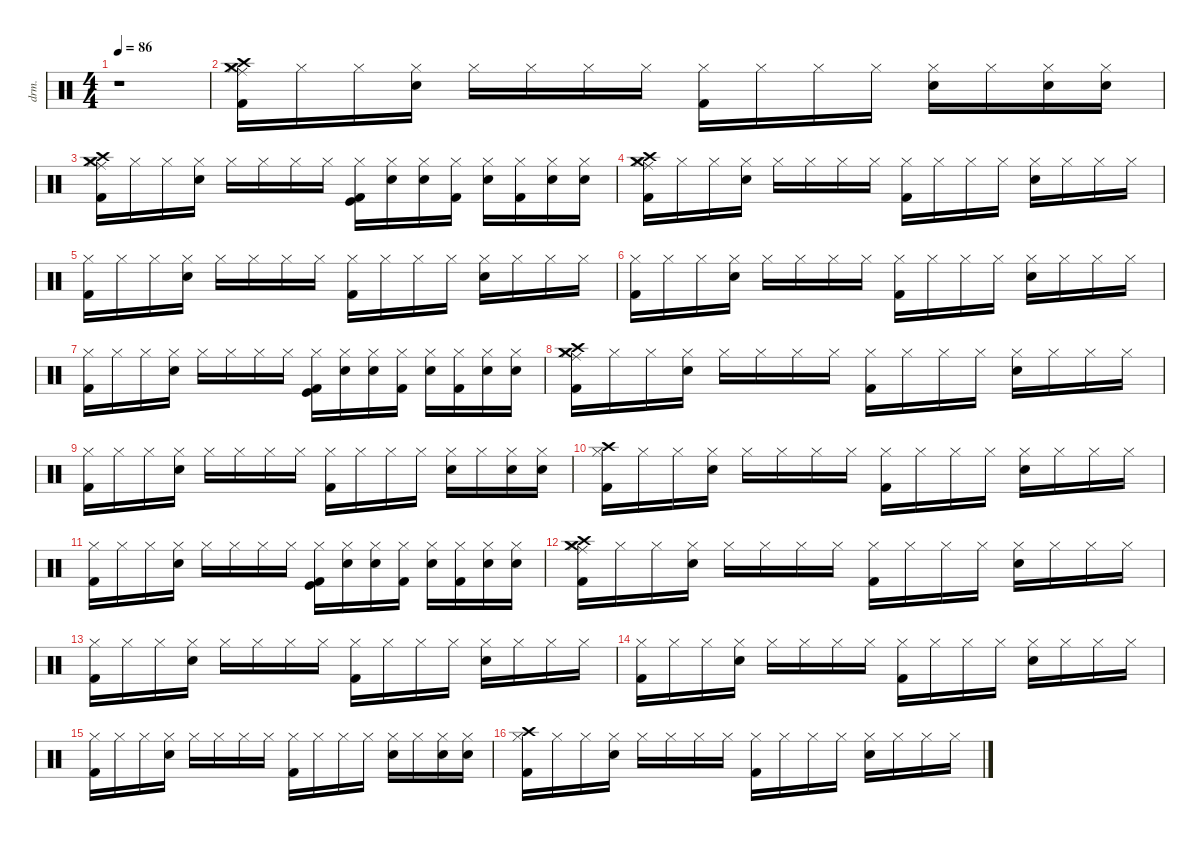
\defaultSystemsLayout 4
\hideDynamics
\bracketExtendMode nobrackets
\otherSystemsTrackNameOrientation horizontal
\track ("Drums" "drm.") {instrument percussion}
\staff {score}
\articulation defaults
\ts (4 4)
\tempo 86
\clef neutral
\ks c
r.1{dy mf beam Down} |
("Hi-Hat (closed)" "Crash high (hit)" "Crash medium (hit)" "Ride (middle)" "Kick (hit) 2").16{beam Down} "Hi-Hat (closed)".16{beam Down} "Hi-Hat (closed)".16{beam Down} ("Hi-Hat (closed)" "Snare (hit) 2").16{beam Down} "Hi-Hat (closed)".16{beam Down} "Hi-Hat (closed)".16{beam Down} "Hi-Hat (closed)".16{beam Down} "Hi-Hat (closed)".16{beam Down} ("Hi-Hat (closed)" "Kick (hit) 2").16{beam Down} "Hi-Hat (closed)".16{beam Down} "Hi-Hat (closed)".16{beam Down} "Hi-Hat (closed)".16{beam Down} ("Hi-Hat (closed)" "Snare (hit) 2").16{beam Down} "Hi-Hat (closed)".16{beam Down} ("Hi-Hat (closed)" "Snare (hit) 2").16{beam Down} ("Hi-Hat (closed)" "Snare (hit) 2").16{beam Down} |
("Hi-Hat (closed)" "Crash high (hit)" "Crash medium (hit)" "Ride (middle)" "Kick (hit) 2").16{beam Down} "Hi-Hat (closed)".16{beam Down} "Hi-Hat (closed)".16{beam Down} ("Hi-Hat (closed)" "Snare (hit) 2").16{beam Down} "Hi-Hat (closed)".16{beam Down} "Hi-Hat (closed)".16{beam Down} "Hi-Hat (closed)".16{beam Down} "Hi-Hat (closed)".16{beam Down} ("Hi-Hat (closed)" "Kick (hit)" "Kick (hit) 2").16{beam Down} ("Hi-Hat (closed)" "Snare (hit) 2").16{beam Down} ("Hi-Hat (closed)" "Snare (hit) 2").16{beam Down} ("Hi-Hat (closed)" "Kick (hit) 2").16{beam Down} ("Hi-Hat (closed)" "Snare (hit) 2").16{beam Down} ("Hi-Hat (closed)" "Kick (hit) 2").16{beam Down} ("Hi-Hat (closed)" "Snare (hit) 2").16{beam Down} ("Hi-Hat (closed)" "Snare (hit) 2").16{beam Down} |
("Hi-Hat (closed)" "Crash high (hit)" "Crash medium (hit)" "Ride (middle)" "Kick (hit) 2").16{beam Down} "Hi-Hat (closed)".16{beam Down} "Hi-Hat (closed)".16{beam Down} ("Hi-Hat (closed)" "Snare (hit) 2").16{beam Down} "Hi-Hat (closed)".16{beam Down} "Hi-Hat (closed)".16{beam Down} "Hi-Hat (closed)".16{beam Down} "Hi-Hat (closed)".16{beam Down} ("Hi-Hat (closed)" "Kick (hit) 2").16{beam Down} "Hi-Hat (closed)".16{beam Down} "Hi-Hat (closed)".16{beam Down} "Hi-Hat (closed)".16{beam Down} ("Hi-Hat (closed)" "Snare (hit) 2").16{beam Down} "Hi-Hat (closed)".16{beam Down} "Hi-Hat (closed)".16{beam Down} "Hi-Hat (closed)".16{beam Down} |
("Hi-Hat (closed)" "Kick (hit) 2").16{beam Down} "Hi-Hat (closed)".16{beam Down} "Hi-Hat (closed)".16{beam Down} ("Hi-Hat (closed)" "Snare (hit) 2").16{beam Down} "Hi-Hat (closed)".16{beam Down} "Hi-Hat (closed)".16{beam Down} "Hi-Hat (closed)".16{beam Down} "Hi-Hat (closed)".16{beam Down} ("Hi-Hat (closed)" "Kick (hit) 2").16{beam Down} "Hi-Hat (closed)".16{beam Down} "Hi-Hat (closed)".16{beam Down} "Hi-Hat (closed)".16{beam Down} ("Hi-Hat (closed)" "Snare (hit) 2").16{beam Down} "Hi-Hat (closed)".16{beam Down} "Hi-Hat (closed)".16{beam Down} "Hi-Hat (closed)".16{beam Down} |
("Hi-Hat (closed)" "Kick (hit) 2").16{beam Down} "Hi-Hat (closed)".16{beam Down} "Hi-Hat (closed)".16{beam Down} ("Hi-Hat (closed)" "Snare (hit) 2").16{beam Down} "Hi-Hat (closed)".16{beam Down} "Hi-Hat (closed)".16{beam Down} "Hi-Hat (closed)".16{beam Down} "Hi-Hat (closed)".16{beam Down} ("Hi-Hat (closed)" "Kick (hit) 2").16{beam Down} "Hi-Hat (closed)".16{beam Down} "Hi-Hat (closed)".16{beam Down} "Hi-Hat (closed)".16{beam Down} ("Hi-Hat (closed)" "Snare (hit) 2").16{beam Down} "Hi-Hat (closed)".16{beam Down} "Hi-Hat (closed)".16{beam Down} "Hi-Hat (closed)".16{beam Down} |
("Hi-Hat (closed)" "Kick (hit) 2").16{beam Down} "Hi-Hat (closed)".16{beam Down} "Hi-Hat (closed)".16{beam Down} ("Hi-Hat (closed)" "Snare (hit) 2").16{beam Down} "Hi-Hat (closed)".16{beam Down} "Hi-Hat (closed)".16{beam Down} "Hi-Hat (closed)".16{beam Down} "Hi-Hat (closed)".16{beam Down} ("Hi-Hat (closed)" "Kick (hit)" "Kick (hit) 2").16{beam Down} ("Hi-Hat (closed)" "Snare (hit) 2").16{beam Down} ("Hi-Hat (closed)" "Snare (hit) 2").16{beam Down} ("Hi-Hat (closed)" "Kick (hit) 2").16{beam Down} ("Hi-Hat (closed)" "Snare (hit) 2").16{beam Down} ("Hi-Hat (closed)" "Kick (hit) 2").16{beam Down} ("Hi-Hat (closed)" "Snare (hit) 2").16{beam Down} ("Hi-Hat (closed)" "Snare (hit) 2").16{beam Down} |
("Hi-Hat (closed)" "Crash high (hit)" "Ride (middle)" "Crash medium (hit)" "Kick (hit) 2").16{beam Down} "Hi-Hat (closed)".16{beam Down} "Hi-Hat (closed)".16{beam Down} ("Hi-Hat (closed)" "Snare (hit) 2").16{beam Down} "Hi-Hat (closed)".16{beam Down} "Hi-Hat (closed)".16{beam Down} "Hi-Hat (closed)".16{beam Down} "Hi-Hat (closed)".16{beam Down} ("Hi-Hat (closed)" "Kick (hit) 2").16{beam Down} "Hi-Hat (closed)".16{beam Down} "Hi-Hat (closed)".16{beam Down} "Hi-Hat (closed)".16{beam Down} ("Hi-Hat (closed)" "Snare (hit) 2").16{beam Down} "Hi-Hat (closed)".16{beam Down} "Hi-Hat (closed)".16{beam Down} "Hi-Hat (closed)".16{beam Down} |
("Hi-Hat (closed)" "Kick (hit) 2").16{beam Down} "Hi-Hat (closed)".16{beam Down} "Hi-Hat (closed)".16{beam Down} ("Hi-Hat (closed)" "Snare (hit) 2").16{beam Down} "Hi-Hat (closed)".16{beam Down} "Hi-Hat (closed)".16{beam Down} "Hi-Hat (closed)".16{beam Down} "Hi-Hat (closed)".16{beam Down} ("Hi-Hat (closed)" "Kick (hit) 2").16{beam Down} "Hi-Hat (closed)".16{beam Down} "Hi-Hat (closed)".16{beam Down} "Hi-Hat (closed)".16{beam Down} ("Hi-Hat (closed)" "Snare (hit) 2").16{beam Down} "Hi-Hat (closed)".16{beam Down} ("Hi-Hat (closed)" "Snare (hit) 2").16{beam Down} ("Hi-Hat (closed)" "Snare (hit) 2").16{beam Down} |
("Hi-Hat (closed)" "Crash high (hit)" "Kick (hit) 2").16{beam Down} "Hi-Hat (closed)".16{beam Down} "Hi-Hat (closed)".16{beam Down} ("Hi-Hat (closed)" "Snare (hit) 2").16{beam Down} "Hi-Hat (closed)".16{beam Down} "Hi-Hat (closed)".16{beam Down} "Hi-Hat (closed)".16{beam Down} "Hi-Hat (closed)".16{beam Down} ("Hi-Hat (closed)" "Kick (hit) 2").16{beam Down} "Hi-Hat (closed)".16{beam Down} "Hi-Hat (closed)".16{beam Down} "Hi-Hat (closed)".16{beam Down} ("Hi-Hat (closed)" "Snare (hit) 2").16{beam Down} "Hi-Hat (closed)".16{beam Down} "Hi-Hat (closed)".16{beam Down} "Hi-Hat (closed)".16{beam Down} |
("Hi-Hat (closed)" "Kick (hit) 2").16{beam Down} "Hi-Hat (closed)".16{beam Down} "Hi-Hat (closed)".16{beam Down} ("Hi-Hat (closed)" "Snare (hit) 2").16{beam Down} "Hi-Hat (closed)".16{beam Down} "Hi-Hat (closed)".16{beam Down} "Hi-Hat (closed)".16{beam Down} "Hi-Hat (closed)".16{beam Down} ("Hi-Hat (closed)" "Kick (hit)" "Kick (hit) 2").16{beam Down} ("Hi-Hat (closed)" "Snare (hit) 2").16{beam Down} ("Hi-Hat (closed)" "Snare (hit) 2").16{beam Down} ("Hi-Hat (closed)" "Kick (hit) 2").16{beam Down} ("Hi-Hat (closed)" "Snare (hit) 2").16{beam Down} ("Hi-Hat (closed)" "Kick (hit) 2").16{beam Down} ("Hi-Hat (closed)" "Snare (hit) 2").16{beam Down} ("Hi-Hat (closed)" "Snare (hit) 2").16{beam Down} |
("Hi-Hat (closed)" "Crash high (hit)" "Ride (middle)" "Crash medium (hit)" "Kick (hit) 2").16{beam Down} "Hi-Hat (closed)".16{beam Down} "Hi-Hat (closed)".16{beam Down} ("Hi-Hat (closed)" "Snare (hit) 2").16{beam Down} "Hi-Hat (closed)".16{beam Down} "Hi-Hat (closed)".16{beam Down} "Hi-Hat (closed)".16{beam Down} "Hi-Hat (closed)".16{beam Down} ("Hi-Hat (closed)" "Kick (hit) 2").16{beam Down} "Hi-Hat (closed)".16{beam Down} "Hi-Hat (closed)".16{beam Down} "Hi-Hat (closed)".16{beam Down} ("Hi-Hat (closed)" "Snare (hit) 2").16{beam Down} "Hi-Hat (closed)".16{beam Down} "Hi-Hat (closed)".16{beam Down} "Hi-Hat (closed)".16{beam Down} |
("Hi-Hat (closed)" "Kick (hit) 2").16{beam Down} "Hi-Hat (closed)".16{beam Down} "Hi-Hat (closed)".16{beam Down} ("Hi-Hat (closed)" "Snare (hit) 2").16{beam Down} "Hi-Hat (closed)".16{beam Down} "Hi-Hat (closed)".16{beam Down} "Hi-Hat (closed)".16{beam Down} "Hi-Hat (closed)".16{beam Down} ("Hi-Hat (closed)" "Kick (hit) 2").16{beam Down} "Hi-Hat (closed)".16{beam Down} "Hi-Hat (closed)".16{beam Down} "Hi-Hat (closed)".16{beam Down} ("Hi-Hat (closed)" "Snare (hit) 2").16{beam Down} "Hi-Hat (closed)".16{beam Down} "Hi-Hat (closed)".16{beam Down} "Hi-Hat (closed)".16{beam Down} |
("Hi-Hat (closed)" "Kick (hit) 2").16{beam Down} "Hi-Hat (closed)".16{beam Down} "Hi-Hat (closed)".16{beam Down} ("Hi-Hat (closed)" "Snare (hit) 2").16{beam Down} "Hi-Hat (closed)".16{beam Down} "Hi-Hat (closed)".16{beam Down} "Hi-Hat (closed)".16{beam Down} "Hi-Hat (closed)".16{beam Down} ("Hi-Hat (closed)" "Kick (hit) 2").16{beam Down} "Hi-Hat (closed)".16{beam Down} "Hi-Hat (closed)".16{beam Down} "Hi-Hat (closed)".16{beam Down} ("Hi-Hat (closed)" "Snare (hit) 2").16{beam Down} "Hi-Hat (closed)".16{beam Down} "Hi-Hat (closed)".16{beam Down} "Hi-Hat (closed)".16{beam Down} |
("Hi-Hat (closed)" "Kick (hit) 2").16{beam Down} "Hi-Hat (closed)".16{beam Down} "Hi-Hat (closed)".16{beam Down} ("Hi-Hat (closed)" "Snare (hit) 2").16{beam Down} "Hi-Hat (closed)".16{beam Down} "Hi-Hat (closed)".16{beam Down} "Hi-Hat (closed)".16{beam Down} "Hi-Hat (closed)".16{beam Down} ("Hi-Hat (closed)" "Kick (hit) 2").16{beam Down} "Hi-Hat (closed)".16{beam Down} "Hi-Hat (closed)".16{beam Down} "Hi-Hat (closed)".16{beam Down} ("Hi-Hat (closed)" "Snare (hit) 2").16{beam Down} "Hi-Hat (closed)".16{beam Down} ("Hi-Hat (closed)" "Snare (hit) 2").16{beam Down} ("Hi-Hat (closed)" "Snare (hit) 2").16{beam Down} |
("Hi-Hat (closed)" "Crash high (hit)" "Kick (hit) 2").16{beam Down} "Hi-Hat (closed)".16{beam Down} "Hi-Hat (closed)".16{beam Down} ("Hi-Hat (closed)" "Snare (hit) 2").16{beam Down} "Hi-Hat (closed)".16{beam Down} "Hi-Hat (closed)".16{beam Down} "Hi-Hat (closed)".16{beam Down} "Hi-Hat (closed)".16{beam Down} ("Hi-Hat (closed)" "Kick (hit) 2").16{beam Down} "Hi-Hat (closed)".16{beam Down} "Hi-Hat (closed)".16{beam Down} "Hi-Hat (closed)".16{beam Down} ("Hi-Hat (closed)" "Snare (hit) 2").16{beam Down} "Hi-Hat (closed)".16{beam Down} "Hi-Hat (closed)".16{beam Down} "Hi-Hat (closed)".16{beam Down}
